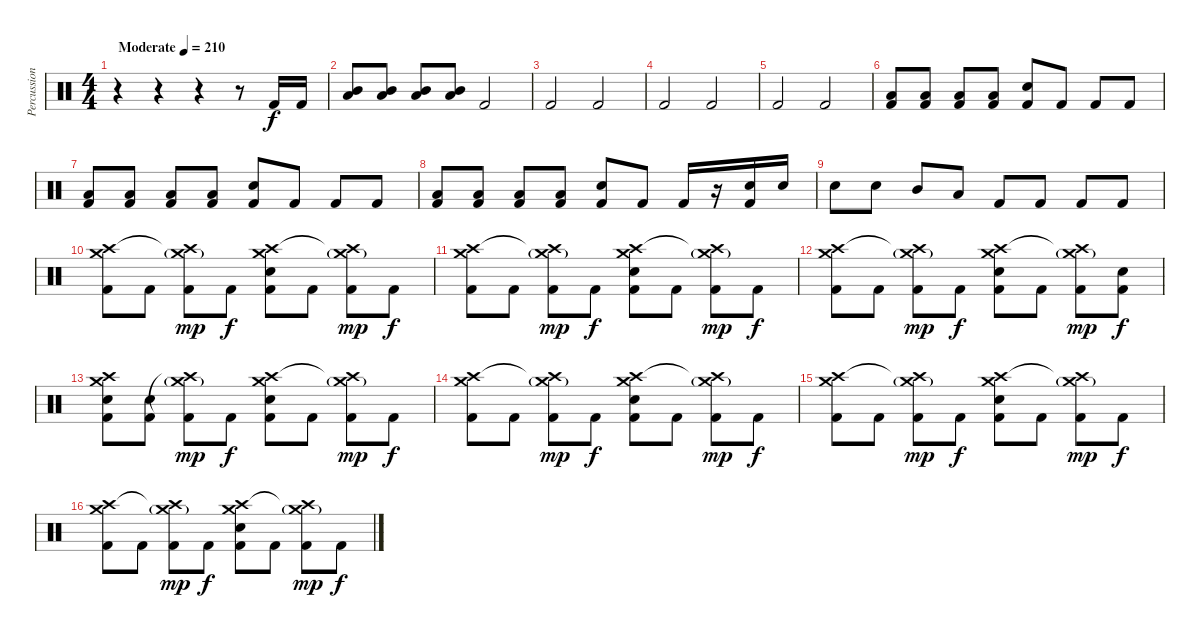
\track ("Percussion" "Percussion") {instrument percussion}
\staff {score}
\articulation defaults
\ts (4 4)
\tempo (210 "Moderate")
\clef neutral
\ks c
r.4{dy f} r.4 r.4 r.8 "Kick (hit) 2".16 "Kick (hit) 2".16 |
("Mid Tom (hit)" "Low Tom (hit)").8 ("Mid Tom (hit)" "Low Tom (hit)").8 ("Mid Tom (hit)" "Low Tom (hit)").8 ("Mid Tom (hit)" "Low Tom (hit)").8 "Kick (hit) 2".2 |
"Kick (hit) 2".2 "Kick (hit) 2".2 |
"Kick (hit) 2".2 "Kick (hit) 2".2 |
"Kick (hit) 2".2 "Kick (hit) 2".2 |
("Low Tom (hit)" "Kick (hit) 2").8 ("Low Tom (hit)" "Kick (hit) 2").8 ("Low Tom (hit)" "Kick (hit) 2").8 ("Low Tom (hit)" "Kick (hit) 2").8 ("Electric Snare (hit)" "Kick (hit) 2").8 "Kick (hit) 2".8 "Kick (hit) 2".8 "Kick (hit) 2".8 |
("Low Tom (hit)" "Kick (hit) 2").8 ("Low Tom (hit)" "Kick (hit) 2").8 ("Low Tom (hit)" "Kick (hit) 2").8 ("Low Tom (hit)" "Kick (hit) 2").8 ("Electric Snare (hit)" "Kick (hit) 2").8 "Kick (hit) 2".8 "Kick (hit) 2".8 "Kick (hit) 2".8 |
("Low Tom (hit)" "Kick (hit) 2").8 ("Low Tom (hit)" "Kick (hit) 2").8 ("Low Tom (hit)" "Kick (hit) 2").8 ("Low Tom (hit)" "Kick (hit) 2").8 ("Electric Snare (hit)" "Kick (hit) 2").8 "Kick (hit) 2".8 "Kick (hit) 2".16 r.16 ("Electric Snare (hit)" "Kick (hit) 2").16 "Electric Snare (hit)".16 |
"Electric Snare (hit)".8 "Electric Snare (hit)".8 "Mid Tom (hit)".8 "Low Tom (hit)".8 "Kick (hit) 2".8 "Kick (hit) 2".8 "Kick (hit) 2".8 "Kick (hit) 2".8 |
("Crash medium (hit)" "Crash high (hit)" "Kick (hit) 2").8 "Kick (hit) 2".8 ("Crash medium (hit)"{g} "Crash high (hit)"{t} "Kick (hit) 2").8{dy mp} "Kick (hit) 2".8{dy f} ("Crash medium (hit)" "Crash high (hit)" "Electric Snare (hit)" "Kick (hit) 2").8 "Kick (hit) 2".8 ("Crash medium (hit)"{g} "Crash high (hit)"{t} "Kick (hit) 2").8{dy mp} "Kick (hit) 2".8{dy f} |
("Crash medium (hit)" "Crash high (hit)" "Kick (hit) 2").8 "Kick (hit) 2".8 ("Crash medium (hit)"{g} "Crash high (hit)"{t} "Kick (hit) 2").8{dy mp} "Kick (hit) 2".8{dy f} ("Crash medium (hit)" "Crash high (hit)" "Electric Snare (hit)" "Kick (hit) 2").8 "Kick (hit) 2".8 ("Crash medium (hit)"{g} "Crash high (hit)"{t} "Kick (hit) 2").8{dy mp} "Kick (hit) 2".8{dy f} |
("Crash medium (hit)" "Crash high (hit)" "Kick (hit) 2").8 "Kick (hit) 2".8 ("Crash medium (hit)"{g} "Crash high (hit)"{t} "Kick (hit) 2").8{dy mp} "Kick (hit) 2".8{dy f} ("Crash medium (hit)" "Crash high (hit)" "Electric Snare (hit)" "Kick (hit) 2").8 "Kick (hit) 2".8 ("Crash medium (hit)"{g} "Crash high (hit)"{t} "Kick (hit) 2").8{dy mp} ("Electric Snare (hit)" "Kick (hit) 2").8{dy f} |
("Crash medium (hit)" "Crash high (hit)" "Electric Snare (hit)" "Kick (hit) 2").8 ("Electric Snare (hit)" "Kick (hit) 2").8 ("Crash medium (hit)"{g} "Crash high (hit)"{t} "Kick (hit) 2").8{dy mp} "Kick (hit) 2".8{dy f} ("Crash medium (hit)" "Crash high (hit)" "Electric Snare (hit)" "Kick (hit) 2").8 "Kick (hit) 2".8 ("Crash medium (hit)"{g} "Crash high (hit)"{t} "Kick (hit) 2").8{dy mp} "Kick (hit) 2".8{dy f} |
("Crash medium (hit)" "Crash high (hit)" "Kick (hit) 2").8 "Kick (hit) 2".8 ("Crash medium (hit)"{g} "Crash high (hit)"{t} "Kick (hit) 2").8{dy mp} "Kick (hit) 2".8{dy f} ("Crash medium (hit)" "Crash high (hit)" "Electric Snare (hit)" "Kick (hit) 2").8 "Kick (hit) 2".8 ("Crash medium (hit)"{g} "Crash high (hit)"{t} "Kick (hit) 2").8{dy mp} "Kick (hit) 2".8{dy f} |
("Crash medium (hit)" "Crash high (hit)" "Kick (hit) 2").8 "Kick (hit) 2".8 ("Crash medium (hit)"{g} "Crash high (hit)"{t} "Kick (hit) 2").8{dy mp} "Kick (hit) 2".8{dy f} ("Crash medium (hit)" "Crash high (hit)" "Electric Snare (hit)" "Kick (hit) 2").8 "Kick (hit) 2".8 ("Crash medium (hit)"{g} "Crash high (hit)"{t} "Kick (hit) 2").8{dy mp} "Kick (hit) 2".8{dy f} |
("Crash medium (hit)" "Crash high (hit)" "Kick (hit) 2").8 "Kick (hit) 2".8 ("Crash medium (hit)"{g} "Crash high (hit)"{t} "Kick (hit) 2").8{dy mp} "Kick (hit) 2".8{dy f} ("Crash medium (hit)" "Crash high (hit)" "Electric Snare (hit)" "Kick (hit) 2").8 "Kick (hit) 2".8 ("Crash medium (hit)"{g} "Crash high (hit)"{t} "Kick (hit) 2").8{dy mp} "Kick (hit) 2".8{dy f}
